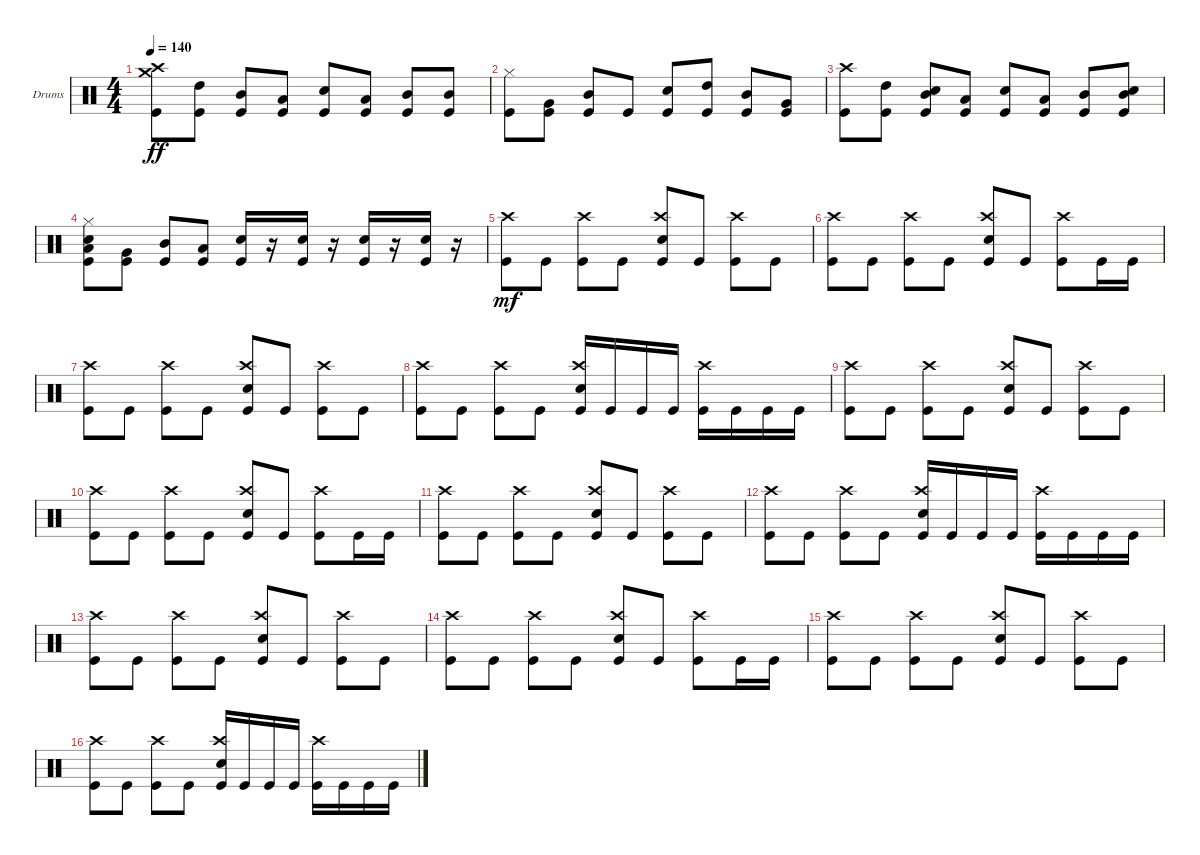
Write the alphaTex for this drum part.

\bracketExtendMode groupsimilarinstruments
\firstSystemTrackNameOrientation horizontal
\otherSystemsTrackNameOrientation horizontal
\track ("Drumkit" "Drums") {instrument percussion}
\staff {score}
\articulation defaults
\ts (4 4)
\tempo 140
\clef neutral
\ks c
("Kick (hit)" "Crash high (hit)" "Crash medium (hit)").8{dy ff} ("Kick (hit)" "High Tom (hit)").8 ("Kick (hit)" "Mid Tom (hit)").8 ("Kick (hit)" "Low Tom (hit)").8 ("Kick (hit)" "Snare (hit) 2").8 ("Kick (hit)" "Low Tom (hit)").8 ("Kick (hit)" "Mid Tom (hit)").8 ("Kick (hit)" "Mid Tom (hit)").8 |
("Hi-Hat (closed)" "Kick (hit)").8 ("Kick (hit)" "Very Low Tom (hit)").8 ("Kick (hit)" "Mid Tom (hit)").8 "Kick (hit)".8 ("Snare (hit) 2" "Kick (hit)").8 ("Kick (hit)" "High Tom (hit)").8 ("Kick (hit)" "Mid Tom (hit)").8 ("Kick (hit)" "Very Low Tom (hit)").8 |
("Kick (hit)" "Crash high (hit)").8 ("Kick (hit)" "High Tom (hit)").8 ("Kick (hit)" "Mid Tom (hit)" "Snare (hit) 2").8 ("Kick (hit)" "Low Tom (hit)").8 ("Kick (hit)" "Snare (hit) 2").8 ("Kick (hit)" "Low Tom (hit)").8 ("Kick (hit)" "Mid Tom (hit)").8 ("Kick (hit)" "Mid Tom (hit)" "Snare (hit) 2").8 |
("Hi-Hat (closed)" "Kick (hit)" "Low Tom (hit)" "Snare (hit) 2").8 ("Kick (hit)" "Very Low Tom (hit)").8 ("Kick (hit)" "Mid Tom (hit)").8 ("Kick (hit)" "Low Tom (hit)").8 ("Kick (hit)" "Snare (hit) 2").16 r.16 ("Kick (hit)" "Snare (hit) 2").16 r.16 ("Kick (hit)" "Snare (hit) 2").16 r.16 ("Kick (hit)" "Snare (hit) 2").16 r.16 |
("Kick (hit)" "Crash high (hit)").8{dy mf} "Kick (hit)".8 ("Kick (hit)" "Crash high (hit)").8 "Kick (hit)".8 ("Kick (hit)" "Snare (hit) 2" "Crash high (hit)").8 "Kick (hit)".8 ("Kick (hit)" "Crash high (hit)").8 "Kick (hit)".8 |
("Kick (hit)" "Crash high (hit)").8 "Kick (hit)".8 ("Kick (hit)" "Crash high (hit)").8 "Kick (hit)".8 ("Kick (hit)" "Snare (hit) 2" "Crash high (hit)").8 "Kick (hit)".8 ("Kick (hit)" "Crash high (hit)").8 "Kick (hit)".16 "Kick (hit)".16 |
("Kick (hit)" "Crash high (hit)").8 "Kick (hit)".8 ("Kick (hit)" "Crash high (hit)").8 "Kick (hit)".8 ("Kick (hit)" "Snare (hit) 2" "Crash high (hit)").8 "Kick (hit)".8 ("Kick (hit)" "Crash high (hit)").8 "Kick (hit)".8 |
("Kick (hit)" "Crash high (hit)").8 "Kick (hit)".8 ("Kick (hit)" "Crash high (hit)").8 "Kick (hit)".8 ("Kick (hit)" "Snare (hit) 2" "Crash high (hit)").16 "Kick (hit)".16 "Kick (hit)".16 "Kick (hit)".16 ("Kick (hit)" "Crash high (hit)").16 "Kick (hit)".16 "Kick (hit)".16 "Kick (hit)".16 |
("Kick (hit)" "Crash high (hit)").8 "Kick (hit)".8 ("Kick (hit)" "Crash high (hit)").8 "Kick (hit)".8 ("Kick (hit)" "Snare (hit) 2" "Crash high (hit)").8 "Kick (hit)".8 ("Kick (hit)" "Crash high (hit)").8 "Kick (hit)".8 |
("Kick (hit)" "Crash high (hit)").8 "Kick (hit)".8 ("Kick (hit)" "Crash high (hit)").8 "Kick (hit)".8 ("Kick (hit)" "Snare (hit) 2" "Crash high (hit)").8 "Kick (hit)".8 ("Kick (hit)" "Crash high (hit)").8 "Kick (hit)".16 "Kick (hit)".16 |
("Kick (hit)" "Crash high (hit)").8 "Kick (hit)".8 ("Kick (hit)" "Crash high (hit)").8 "Kick (hit)".8 ("Kick (hit)" "Snare (hit) 2" "Crash high (hit)").8 "Kick (hit)".8 ("Kick (hit)" "Crash high (hit)").8 "Kick (hit)".8 |
("Kick (hit)" "Crash high (hit)").8 "Kick (hit)".8 ("Kick (hit)" "Crash high (hit)").8 "Kick (hit)".8 ("Kick (hit)" "Snare (hit) 2" "Crash high (hit)").16 "Kick (hit)".16 "Kick (hit)".16 "Kick (hit)".16 ("Kick (hit)" "Crash high (hit)").16 "Kick (hit)".16 "Kick (hit)".16 "Kick (hit)".16 |
("Kick (hit)" "Crash high (hit)").8 "Kick (hit)".8 ("Kick (hit)" "Crash high (hit)").8 "Kick (hit)".8 ("Kick (hit)" "Snare (hit) 2" "Crash high (hit)").8 "Kick (hit)".8 ("Kick (hit)" "Crash high (hit)").8 "Kick (hit)".8 |
("Kick (hit)" "Crash high (hit)").8 "Kick (hit)".8 ("Kick (hit)" "Crash high (hit)").8 "Kick (hit)".8 ("Kick (hit)" "Snare (hit) 2" "Crash high (hit)").8 "Kick (hit)".8 ("Kick (hit)" "Crash high (hit)").8 "Kick (hit)".16 "Kick (hit)".16 |
("Kick (hit)" "Crash high (hit)").8 "Kick (hit)".8 ("Kick (hit)" "Crash high (hit)").8 "Kick (hit)".8 ("Kick (hit)" "Snare (hit) 2" "Crash high (hit)").8 "Kick (hit)".8 ("Kick (hit)" "Crash high (hit)").8 "Kick (hit)".8 |
("Kick (hit)" "Crash high (hit)").8 "Kick (hit)".8 ("Kick (hit)" "Crash high (hit)").8 "Kick (hit)".8 ("Kick (hit)" "Snare (hit) 2" "Crash high (hit)").16 "Kick (hit)".16 "Kick (hit)".16 "Kick (hit)".16 ("Kick (hit)" "Crash high (hit)").16 "Kick (hit)".16 "Kick (hit)".16 "Kick (hit)".16
